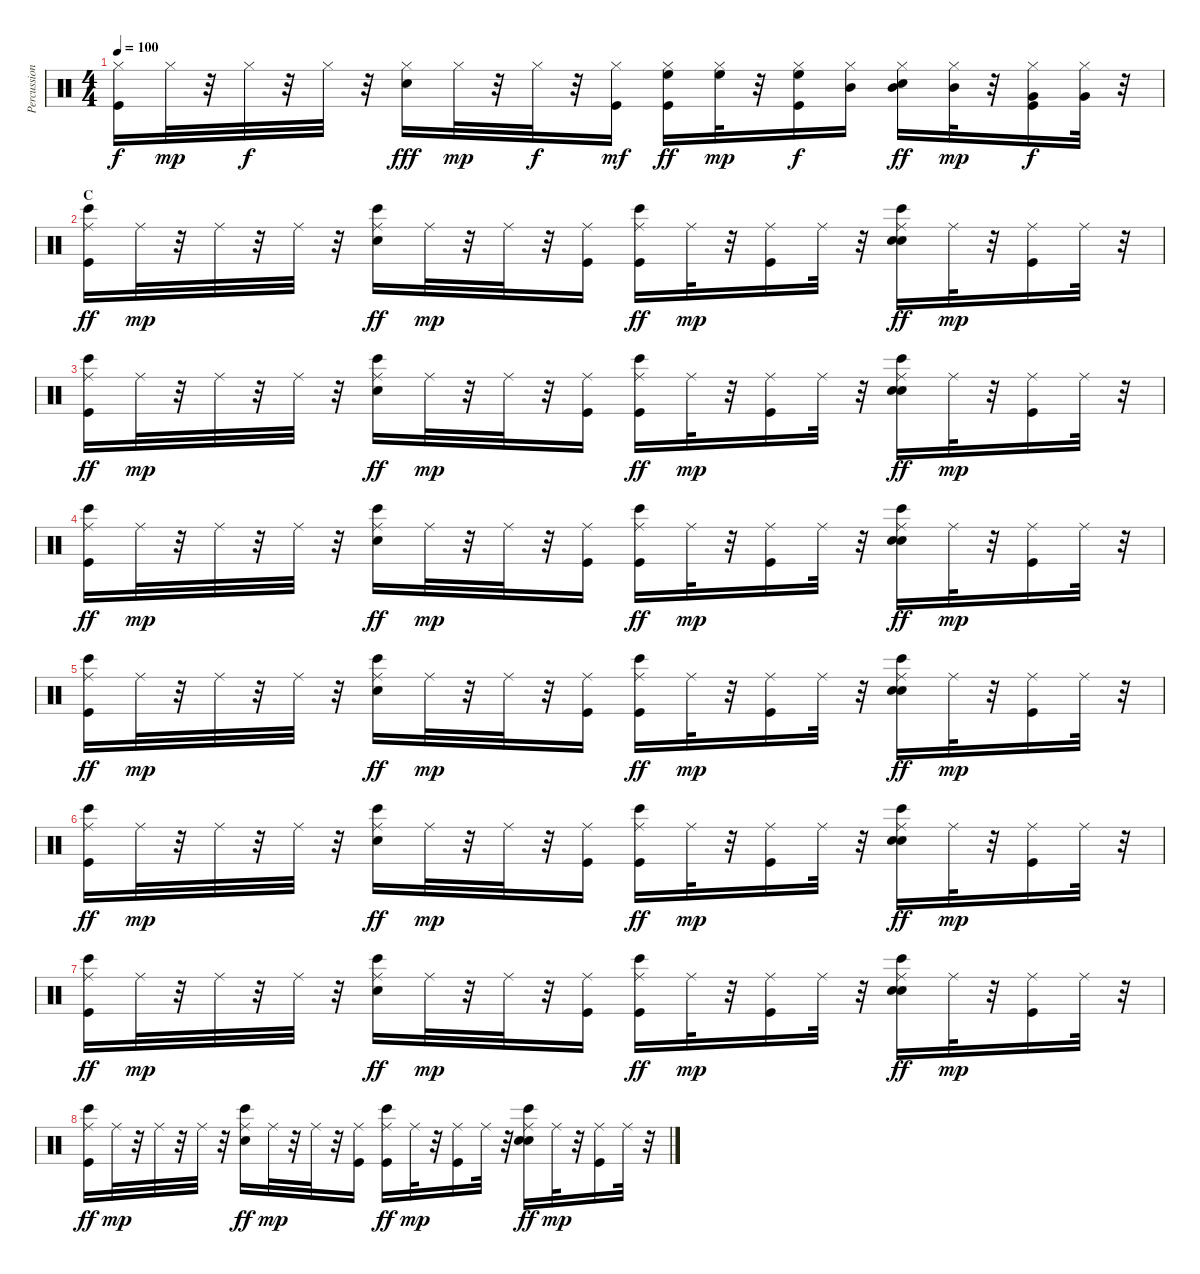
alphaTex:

\track ("Percussion" "Percussion") {instrument percussion}
\staff {score}
\articulation defaults
\ts (4 4)
\tempo 100
\clef neutral
\ks c
("Kick (hit)" "Hi-Hat (closed)").16{dy f} "Hi-Hat (closed)".32{dy mp} r.32 "Hi-Hat (closed)".32{dy f} r.32 "Hi-Hat (closed)".32 r.32 ("Electric Snare (hit)" "Hi-Hat (closed)").16{dy fff} "Hi-Hat (closed)".32{dy mp} r.32 "Hi-Hat (closed)".32{dy f} r.32 ("Kick (hit)" "Hi-Hat (closed)").16{dy mf} ("Kick (hit)" "Hi-Hat (closed)" "High Floor Tom (hit)").16{dy ff} ("Hi-Hat (closed)" "High Floor Tom (hit)").32{dy mp} r.32 ("Kick (hit)" "Hi-Hat (closed)" "High Floor Tom (hit)").16{dy f} ("Hi-Hat (closed)" "Mid Tom (hit)").16 ("Electric Snare (hit)" "Hi-Hat (closed)" "Mid Tom (hit)").16{dy ff} ("Hi-Hat (closed)" "Mid Tom (hit)").32{dy mp} r.32 ("Kick (hit)" "Hi-Hat (closed)" "Very Low Tom (hit)").16{dy f} ("Hi-Hat (closed)" "Very Low Tom (hit)").32 r.32 |
\section ("" "C")
("Kick (hit)" "Ride (middle)" "Bongo High (hit)").16{dy ff} "Ride (middle)".32{dy mp} r.32 "Ride (middle)".32 r.32 "Ride (middle)".32 r.32 ("Electric Snare (hit)" "Ride (middle)" "Bongo High (hit)").16{dy ff} "Ride (middle)".32{dy mp} r.32 "Ride (middle)".32 r.32 ("Kick (hit)" "Ride (middle)").16 ("Kick (hit)" "Ride (middle)" "Bongo High (hit)").16{dy ff} "Ride (middle)".32{dy mp} r.32 ("Kick (hit)" "Ride (middle)").16 "Ride (middle)".32 r.32 ("Hand Clap (hit)" "Electric Snare (hit)" "Ride (middle)" "Bongo High (hit)").16{dy ff} "Ride (middle)".32{dy mp} r.32 ("Kick (hit)" "Ride (middle)").16 "Ride (middle)".32 r.32 |
("Kick (hit)" "Ride (middle)" "Bongo High (hit)").16{dy ff} "Ride (middle)".32{dy mp} r.32 "Ride (middle)".32 r.32 "Ride (middle)".32 r.32 ("Electric Snare (hit)" "Ride (middle)" "Bongo High (hit)").16{dy ff} "Ride (middle)".32{dy mp} r.32 "Ride (middle)".32 r.32 ("Kick (hit)" "Ride (middle)").16 ("Kick (hit)" "Ride (middle)" "Bongo High (hit)").16{dy ff} "Ride (middle)".32{dy mp} r.32 ("Kick (hit)" "Ride (middle)").16 "Ride (middle)".32 r.32 ("Hand Clap (hit)" "Electric Snare (hit)" "Ride (middle)" "Bongo High (hit)").16{dy ff} "Ride (middle)".32{dy mp} r.32 ("Kick (hit)" "Ride (middle)").16 "Ride (middle)".32 r.32 |
("Kick (hit)" "Ride (middle)" "Bongo High (hit)").16{dy ff} "Ride (middle)".32{dy mp} r.32 "Ride (middle)".32 r.32 "Ride (middle)".32 r.32 ("Electric Snare (hit)" "Ride (middle)" "Bongo High (hit)").16{dy ff} "Ride (middle)".32{dy mp} r.32 "Ride (middle)".32 r.32 ("Kick (hit)" "Ride (middle)").16 ("Kick (hit)" "Ride (middle)" "Bongo High (hit)").16{dy ff} "Ride (middle)".32{dy mp} r.32 ("Kick (hit)" "Ride (middle)").16 "Ride (middle)".32 r.32 ("Hand Clap (hit)" "Electric Snare (hit)" "Ride (middle)" "Bongo High (hit)").16{dy ff} "Ride (middle)".32{dy mp} r.32 ("Kick (hit)" "Ride (middle)").16 "Ride (middle)".32 r.32 |
("Kick (hit)" "Ride (middle)" "Bongo High (hit)").16{dy ff} "Ride (middle)".32{dy mp} r.32 "Ride (middle)".32 r.32 "Ride (middle)".32 r.32 ("Electric Snare (hit)" "Ride (middle)" "Bongo High (hit)").16{dy ff} "Ride (middle)".32{dy mp} r.32 "Ride (middle)".32 r.32 ("Kick (hit)" "Ride (middle)").16 ("Kick (hit)" "Ride (middle)" "Bongo High (hit)").16{dy ff} "Ride (middle)".32{dy mp} r.32 ("Kick (hit)" "Ride (middle)").16 "Ride (middle)".32 r.32 ("Hand Clap (hit)" "Electric Snare (hit)" "Ride (middle)" "Bongo High (hit)").16{dy ff} "Ride (middle)".32{dy mp} r.32 ("Kick (hit)" "Ride (middle)").16 "Ride (middle)".32 r.32 |
("Kick (hit)" "Ride (middle)" "Bongo High (hit)").16{dy ff} "Ride (middle)".32{dy mp} r.32 "Ride (middle)".32 r.32 "Ride (middle)".32 r.32 ("Electric Snare (hit)" "Ride (middle)" "Bongo High (hit)").16{dy ff} "Ride (middle)".32{dy mp} r.32 "Ride (middle)".32 r.32 ("Kick (hit)" "Ride (middle)").16 ("Kick (hit)" "Ride (middle)" "Bongo High (hit)").16{dy ff} "Ride (middle)".32{dy mp} r.32 ("Kick (hit)" "Ride (middle)").16 "Ride (middle)".32 r.32 ("Hand Clap (hit)" "Electric Snare (hit)" "Ride (middle)" "Bongo High (hit)").16{dy ff} "Ride (middle)".32{dy mp} r.32 ("Kick (hit)" "Ride (middle)").16 "Ride (middle)".32 r.32 |
("Kick (hit)" "Ride (middle)" "Bongo High (hit)").16{dy ff} "Ride (middle)".32{dy mp} r.32 "Ride (middle)".32 r.32 "Ride (middle)".32 r.32 ("Electric Snare (hit)" "Ride (middle)" "Bongo High (hit)").16{dy ff} "Ride (middle)".32{dy mp} r.32 "Ride (middle)".32 r.32 ("Kick (hit)" "Ride (middle)").16 ("Kick (hit)" "Ride (middle)" "Bongo High (hit)").16{dy ff} "Ride (middle)".32{dy mp} r.32 ("Kick (hit)" "Ride (middle)").16 "Ride (middle)".32 r.32 ("Hand Clap (hit)" "Electric Snare (hit)" "Ride (middle)" "Bongo High (hit)").16{dy ff} "Ride (middle)".32{dy mp} r.32 ("Kick (hit)" "Ride (middle)").16 "Ride (middle)".32 r.32 |
("Kick (hit)" "Ride (middle)" "Bongo High (hit)").16{dy ff} "Ride (middle)".32{dy mp} r.32 "Ride (middle)".32 r.32 "Ride (middle)".32 r.32 ("Electric Snare (hit)" "Ride (middle)" "Bongo High (hit)").16{dy ff} "Ride (middle)".32{dy mp} r.32 "Ride (middle)".32 r.32 ("Kick (hit)" "Ride (middle)").16 ("Kick (hit)" "Ride (middle)" "Bongo High (hit)").16{dy ff} "Ride (middle)".32{dy mp} r.32 ("Kick (hit)" "Ride (middle)").16 "Ride (middle)".32 r.32 ("Hand Clap (hit)" "Electric Snare (hit)" "Ride (middle)" "Bongo High (hit)").16{dy ff} "Ride (middle)".32{dy mp} r.32 ("Kick (hit)" "Ride (middle)").16 "Ride (middle)".32 r.32
